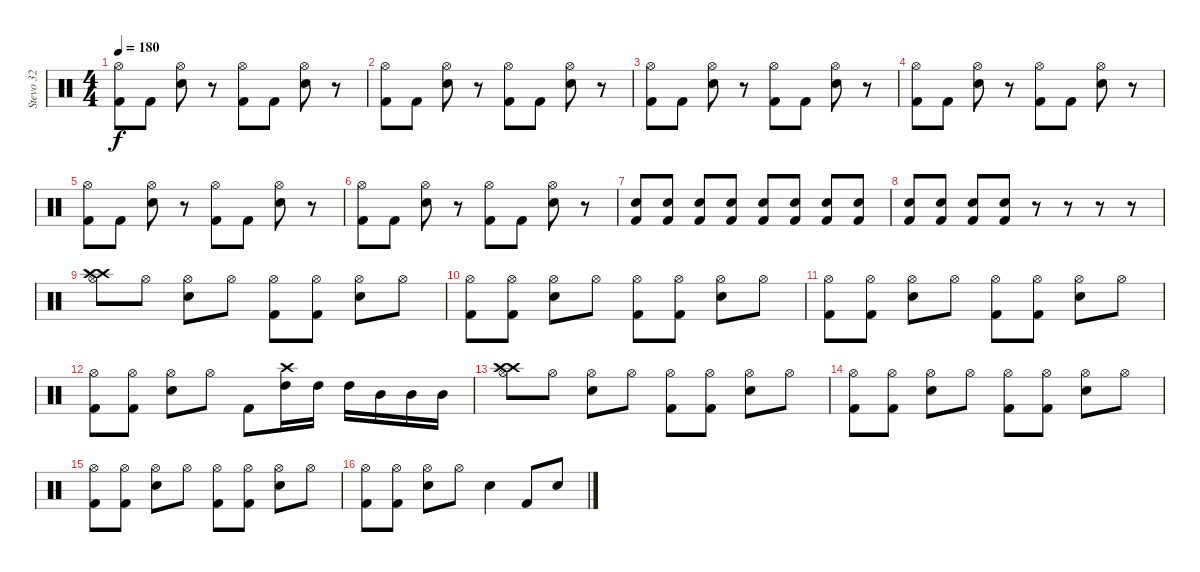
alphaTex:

\track ("Stevo 32" "Stevo 32") {instrument percussion}
\staff {score}
\articulation defaults
\ts (4 4)
\tempo 180
\clef neutral
\ks c
("Hi-Hat (open)" "Kick (hit) 2").8{dy f} "Kick (hit) 2".8 ("Hi-Hat (open)" "Snare (hit) 2").8 r.8 ("Hi-Hat (open)" "Kick (hit) 2").8 "Kick (hit) 2".8 ("Hi-Hat (open)" "Snare (hit) 2").8 r.8 |
("Hi-Hat (open)" "Kick (hit) 2").8 "Kick (hit) 2".8 ("Hi-Hat (open)" "Snare (hit) 2").8 r.8 ("Hi-Hat (open)" "Kick (hit) 2").8 "Kick (hit) 2".8 ("Hi-Hat (open)" "Snare (hit) 2").8 r.8 |
("Hi-Hat (open)" "Kick (hit) 2").8 "Kick (hit) 2".8 ("Hi-Hat (open)" "Snare (hit) 2").8 r.8 ("Hi-Hat (open)" "Kick (hit) 2").8 "Kick (hit) 2".8 ("Hi-Hat (open)" "Snare (hit) 2").8 r.8 |
("Hi-Hat (open)" "Kick (hit) 2").8 "Kick (hit) 2".8 ("Hi-Hat (open)" "Snare (hit) 2").8 r.8 ("Hi-Hat (open)" "Kick (hit) 2").8 "Kick (hit) 2".8 ("Hi-Hat (open)" "Snare (hit) 2").8 r.8 |
("Hi-Hat (open)" "Kick (hit) 2").8 "Kick (hit) 2".8 ("Hi-Hat (open)" "Snare (hit) 2").8 r.8 ("Hi-Hat (open)" "Kick (hit) 2").8 "Kick (hit) 2".8 ("Hi-Hat (open)" "Snare (hit) 2").8 r.8 |
("Hi-Hat (open)" "Kick (hit) 2").8 "Kick (hit) 2".8 ("Hi-Hat (open)" "Snare (hit) 2").8 r.8 ("Hi-Hat (open)" "Kick (hit) 2").8 "Kick (hit) 2".8 ("Hi-Hat (open)" "Snare (hit) 2").8 r.8 |
("Snare (hit) 2" "Kick (hit) 2").8 ("Snare (hit) 2" "Kick (hit) 2").8 ("Snare (hit) 2" "Kick (hit) 2").8 ("Snare (hit) 2" "Kick (hit) 2").8 ("Snare (hit) 2" "Kick (hit) 2").8 ("Snare (hit) 2" "Kick (hit) 2").8 ("Snare (hit) 2" "Kick (hit) 2").8 ("Snare (hit) 2" "Kick (hit) 2").8 |
("Snare (hit) 2" "Kick (hit) 2").8 ("Snare (hit) 2" "Kick (hit) 2").8 ("Snare (hit) 2" "Kick (hit) 2").8 ("Snare (hit) 2" "Kick (hit) 2").8 r.8 r.8 r.8 r.8 |
("Crash high (hit)" "Crash high (hit)" "Hi-Hat (open)").8 "Hi-Hat (open)".8 ("Hi-Hat (open)" "Snare (hit) 2").8 "Hi-Hat (open)".8 ("Hi-Hat (open)" "Kick (hit) 2").8 ("Hi-Hat (open)" "Kick (hit) 2").8 ("Hi-Hat (open)" "Snare (hit) 2").8 "Hi-Hat (open)".8 |
("Hi-Hat (open)" "Kick (hit) 2").8 ("Hi-Hat (open)" "Kick (hit) 2").8 ("Hi-Hat (open)" "Snare (hit) 2").8 "Hi-Hat (open)".8 ("Hi-Hat (open)" "Kick (hit) 2").8 ("Hi-Hat (open)" "Kick (hit) 2").8 ("Hi-Hat (open)" "Snare (hit) 2").8 "Hi-Hat (open)".8 |
("Hi-Hat (open)" "Kick (hit) 2").8 ("Hi-Hat (open)" "Kick (hit) 2").8 ("Hi-Hat (open)" "Snare (hit) 2").8 "Hi-Hat (open)".8 ("Hi-Hat (open)" "Kick (hit) 2").8 ("Hi-Hat (open)" "Kick (hit) 2").8 ("Hi-Hat (open)" "Snare (hit) 2").8 "Hi-Hat (open)".8 |
("Hi-Hat (open)" "Kick (hit) 2").8 ("Hi-Hat (open)" "Kick (hit) 2").8 ("Hi-Hat (open)" "Snare (hit) 2").8 "Hi-Hat (open)".8 "Kick (hit) 2".8 ("Crash high (hit)" "High Tom (hit)").16 "High Tom (hit)".16 "High Tom (hit)".16 "Mid Tom (hit)".16 "Mid Tom (hit)".16 "Mid Tom (hit)".16 |
("Crash high (hit)" "Crash high (hit)" "Hi-Hat (open)").8 "Hi-Hat (open)".8 ("Hi-Hat (open)" "Snare (hit) 2").8 "Hi-Hat (open)".8 ("Hi-Hat (open)" "Kick (hit) 2").8 ("Hi-Hat (open)" "Kick (hit) 2").8 ("Hi-Hat (open)" "Snare (hit) 2").8 "Hi-Hat (open)".8 |
("Hi-Hat (open)" "Kick (hit) 2").8 ("Hi-Hat (open)" "Kick (hit) 2").8 ("Hi-Hat (open)" "Snare (hit) 2").8 "Hi-Hat (open)".8 ("Hi-Hat (open)" "Kick (hit) 2").8 ("Hi-Hat (open)" "Kick (hit) 2").8 ("Hi-Hat (open)" "Snare (hit) 2").8{txt ""} "Hi-Hat (open)".8 |
("Hi-Hat (open)" "Kick (hit) 2").8 ("Hi-Hat (open)" "Kick (hit) 2").8 ("Hi-Hat (open)" "Snare (hit) 2").8 "Hi-Hat (open)".8 ("Hi-Hat (open)" "Kick (hit) 2").8 ("Hi-Hat (open)" "Kick (hit) 2").8 ("Hi-Hat (open)" "Snare (hit) 2").8 "Hi-Hat (open)".8 |
("Hi-Hat (open)" "Kick (hit) 2").8 ("Hi-Hat (open)" "Kick (hit) 2").8 ("Hi-Hat (open)" "Snare (hit) 2").8 "Hi-Hat (open)".8 "Snare (hit) 2".4 "Kick (hit) 2".8 "Snare (hit) 2".8
